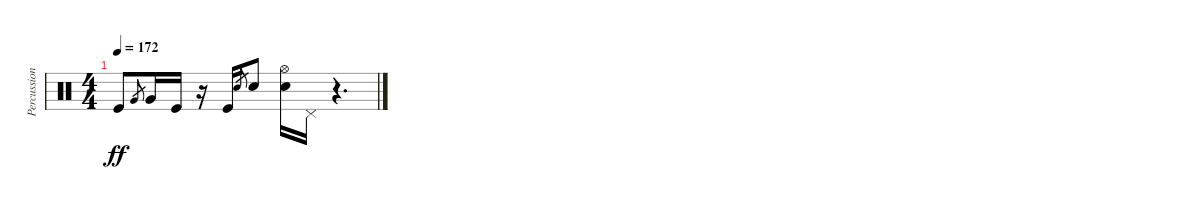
\track ("Percussion" "Percussion") {instrument percussion}
\staff {score}
\articulation defaults
\ts (4 4)
\tempo 172
\clef neutral
\ks c "Kick (hit)".8{dy ff} "Very Low Tom (hit)".8{gr} "Very Low Tom (hit)".16 "Kick (hit)".16
r.16 "Kick (hit)".16 "Snare (hit) 2".8{gr} "Snare (hit) 2".8 ("Hi-Hat (open)" "Snare (hit) 2").16 "Pedal Hi-Hat (hit)".16 r.4{d}
